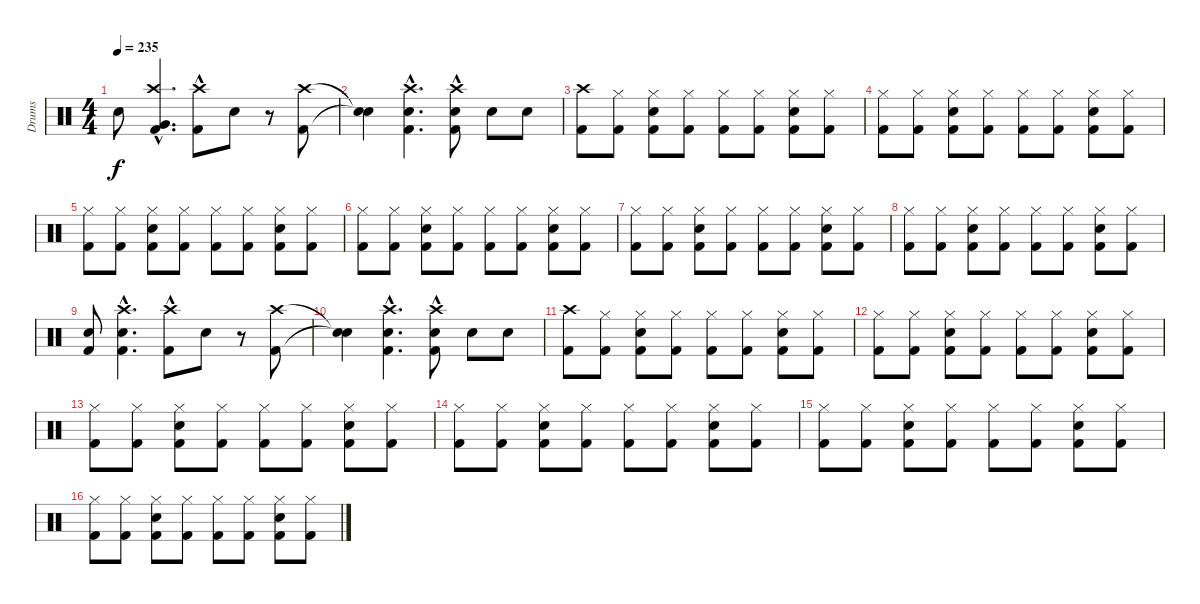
\track ("Drums" "Drums") {instrument percussion}
\staff {score}
\articulation defaults
\ts (4 4)
\tempo 235
\clef neutral
\ks c "Snare (hit) 2".8{dy f}
("Kick (hit) 2"{hac} "Crash high (hit)"{hac} "Very Low Tom (hit)").4{d} ("Kick (hit) 2"{hac} "Crash high (hit)"{hac}).8 "Snare (hit) 2".8 r.8 ("Kick (hit) 2" "Crash high (hit)").8 |
("Snare (hit)"{t} "Snare (hit)"{t}).4 ("Kick (hit) 2"{hac} "Crash high (hit)"{hac} "Snare (hit) 2").4{d} ("Kick (hit) 2"{hac} "Crash high (hit)"{hac} "Snare (hit) 2").8 "Snare (hit) 2".8 "Snare (hit) 2".8 |
("Kick (hit) 2" "Crash high (hit)").8 ("Kick (hit) 2" "Hi-Hat (closed)").8 ("Kick (hit) 2" "Snare (hit) 2" "Hi-Hat (closed)").8 ("Kick (hit) 2" "Hi-Hat (closed)").8 ("Kick (hit) 2" "Hi-Hat (closed)").8 ("Kick (hit) 2" "Hi-Hat (closed)").8 ("Kick (hit) 2" "Hi-Hat (closed)" "Snare (hit) 2").8 ("Kick (hit) 2" "Hi-Hat (closed)").8 |
("Kick (hit) 2" "Hi-Hat (closed)").8 ("Kick (hit) 2" "Hi-Hat (closed)").8 ("Kick (hit) 2" "Snare (hit) 2" "Hi-Hat (closed)").8 ("Kick (hit) 2" "Hi-Hat (closed)").8 ("Kick (hit) 2" "Hi-Hat (closed)").8 ("Kick (hit) 2" "Hi-Hat (closed)").8 ("Kick (hit) 2" "Hi-Hat (closed)" "Snare (hit) 2").8 ("Kick (hit) 2" "Hi-Hat (closed)").8 |
("Kick (hit) 2" "Hi-Hat (closed)").8 ("Kick (hit) 2" "Hi-Hat (closed)").8 ("Kick (hit) 2" "Snare (hit) 2" "Hi-Hat (closed)").8 ("Kick (hit) 2" "Hi-Hat (closed)").8 ("Kick (hit) 2" "Hi-Hat (closed)").8 ("Kick (hit) 2" "Hi-Hat (closed)").8 ("Kick (hit) 2" "Hi-Hat (closed)" "Snare (hit) 2").8 ("Kick (hit) 2" "Hi-Hat (closed)").8 |
("Kick (hit) 2" "Hi-Hat (closed)").8 ("Kick (hit) 2" "Hi-Hat (closed)").8 ("Kick (hit) 2" "Snare (hit) 2" "Hi-Hat (closed)").8 ("Kick (hit) 2" "Hi-Hat (closed)").8 ("Kick (hit) 2" "Hi-Hat (closed)").8 ("Kick (hit) 2" "Hi-Hat (closed)").8 ("Kick (hit) 2" "Hi-Hat (closed)" "Snare (hit) 2").8 ("Kick (hit) 2" "Hi-Hat (closed)").8 |
("Kick (hit) 2" "Hi-Hat (closed)").8 ("Kick (hit) 2" "Hi-Hat (closed)").8 ("Kick (hit) 2" "Snare (hit) 2" "Hi-Hat (closed)").8 ("Kick (hit) 2" "Hi-Hat (closed)").8 ("Kick (hit) 2" "Hi-Hat (closed)").8 ("Kick (hit) 2" "Hi-Hat (closed)").8 ("Kick (hit) 2" "Hi-Hat (closed)" "Snare (hit) 2").8 ("Kick (hit) 2" "Hi-Hat (closed)").8 |
("Kick (hit) 2" "Hi-Hat (closed)").8 ("Kick (hit) 2" "Hi-Hat (closed)").8 ("Kick (hit) 2" "Snare (hit) 2" "Hi-Hat (closed)").8 ("Kick (hit) 2" "Hi-Hat (closed)").8 ("Kick (hit) 2" "Hi-Hat (closed)").8 ("Kick (hit) 2" "Hi-Hat (closed)").8 ("Kick (hit) 2" "Hi-Hat (closed)" "Snare (hit) 2").8 ("Kick (hit) 2" "Hi-Hat (closed)").8 |
("Kick (hit) 2" "Snare (hit) 2").8 ("Kick (hit) 2"{hac} "Snare (hit) 2"{hac} "Crash high (hit)"{hac}).4{d} ("Crash high (hit)"{hac} "Kick (hit) 2"{hac}).8 "Snare (hit) 2".8 r.8 ("Kick (hit) 2" "Crash high (hit)").8 |
("Snare (hit)"{t} "Snare (hit)"{t}).4 ("Kick (hit) 2"{hac} "Crash high (hit)"{hac} "Snare (hit) 2").4{d} ("Kick (hit) 2"{hac} "Crash high (hit)"{hac} "Snare (hit) 2").8 "Snare (hit) 2".8 "Snare (hit) 2".8 |
("Kick (hit) 2" "Crash high (hit)").8 ("Kick (hit) 2" "Hi-Hat (closed)").8 ("Kick (hit) 2" "Snare (hit) 2" "Hi-Hat (closed)").8 ("Kick (hit) 2" "Hi-Hat (closed)").8 ("Kick (hit) 2" "Hi-Hat (closed)").8 ("Kick (hit) 2" "Hi-Hat (closed)").8 ("Kick (hit) 2" "Hi-Hat (closed)" "Snare (hit) 2").8 ("Kick (hit) 2" "Hi-Hat (closed)").8 |
("Kick (hit) 2" "Hi-Hat (closed)").8 ("Kick (hit) 2" "Hi-Hat (closed)").8 ("Kick (hit) 2" "Snare (hit) 2" "Hi-Hat (closed)").8 ("Kick (hit) 2" "Hi-Hat (closed)").8 ("Kick (hit) 2" "Hi-Hat (closed)").8 ("Kick (hit) 2" "Hi-Hat (closed)").8 ("Kick (hit) 2" "Hi-Hat (closed)" "Snare (hit) 2").8 ("Kick (hit) 2" "Hi-Hat (closed)").8 |
("Kick (hit) 2" "Hi-Hat (closed)").8 ("Kick (hit) 2" "Hi-Hat (closed)").8 ("Kick (hit) 2" "Snare (hit) 2" "Hi-Hat (closed)").8 ("Kick (hit) 2" "Hi-Hat (closed)").8 ("Kick (hit) 2" "Hi-Hat (closed)").8 ("Kick (hit) 2" "Hi-Hat (closed)").8 ("Kick (hit) 2" "Hi-Hat (closed)" "Snare (hit) 2").8 ("Kick (hit) 2" "Hi-Hat (closed)").8 |
("Kick (hit) 2" "Hi-Hat (closed)").8 ("Kick (hit) 2" "Hi-Hat (closed)").8 ("Kick (hit) 2" "Snare (hit) 2" "Hi-Hat (closed)").8 ("Kick (hit) 2" "Hi-Hat (closed)").8 ("Kick (hit) 2" "Hi-Hat (closed)").8 ("Kick (hit) 2" "Hi-Hat (closed)").8 ("Kick (hit) 2" "Hi-Hat (closed)" "Snare (hit) 2").8 ("Kick (hit) 2" "Hi-Hat (closed)").8 |
("Kick (hit) 2" "Hi-Hat (closed)").8 ("Kick (hit) 2" "Hi-Hat (closed)").8 ("Kick (hit) 2" "Snare (hit) 2" "Hi-Hat (closed)").8 ("Kick (hit) 2" "Hi-Hat (closed)").8 ("Kick (hit) 2" "Hi-Hat (closed)").8 ("Kick (hit) 2" "Hi-Hat (closed)").8 ("Kick (hit) 2" "Hi-Hat (closed)" "Snare (hit) 2").8 ("Kick (hit) 2" "Hi-Hat (closed)").8 |
("Kick (hit) 2" "Hi-Hat (closed)").8 ("Kick (hit) 2" "Hi-Hat (closed)").8 ("Kick (hit) 2" "Snare (hit) 2" "Hi-Hat (closed)").8 ("Kick (hit) 2" "Hi-Hat (closed)").8 ("Kick (hit) 2" "Hi-Hat (closed)").8 ("Kick (hit) 2" "Hi-Hat (closed)").8 ("Kick (hit) 2" "Hi-Hat (closed)" "Snare (hit) 2").8 ("Kick (hit) 2" "Hi-Hat (closed)").8
